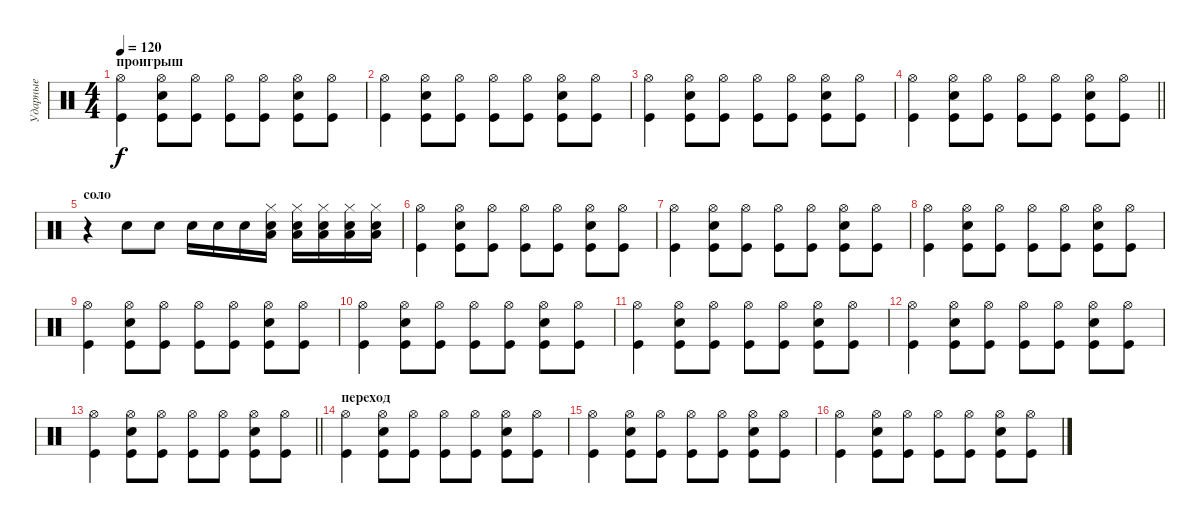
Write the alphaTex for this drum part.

\track ("Ударные" "Ударные") {instrument percussion}
\staff {score}
\articulation defaults
\ts (4 4)
\section ("" "проигрыш")
\tempo 120
\clef neutral
\ks c
("Hi-Hat (open)" "Kick (hit)").4{dy f} ("Hi-Hat (open)" "Snare (hit) 2" "Kick (hit)").8 ("Hi-Hat (open)" "Kick (hit)").8 ("Hi-Hat (open)" "Kick (hit)").8 ("Hi-Hat (open)" "Kick (hit)").8 ("Hi-Hat (open)" "Snare (hit) 2" "Kick (hit)").8 ("Hi-Hat (open)" "Kick (hit)").8 |
("Hi-Hat (open)" "Kick (hit)").4 ("Hi-Hat (open)" "Snare (hit) 2" "Kick (hit)").8 ("Hi-Hat (open)" "Kick (hit)").8 ("Hi-Hat (open)" "Kick (hit)").8 ("Hi-Hat (open)" "Kick (hit)").8 ("Hi-Hat (open)" "Snare (hit) 2" "Kick (hit)").8 ("Hi-Hat (open)" "Kick (hit)").8 |
("Hi-Hat (open)" "Kick (hit)").4 ("Hi-Hat (open)" "Snare (hit) 2" "Kick (hit)").8 ("Hi-Hat (open)" "Kick (hit)").8 ("Hi-Hat (open)" "Kick (hit)").8 ("Hi-Hat (open)" "Kick (hit)").8 ("Hi-Hat (open)" "Snare (hit) 2" "Kick (hit)").8 ("Hi-Hat (open)" "Kick (hit)").8 |
\barLineRight lightlight
("Hi-Hat (open)" "Kick (hit)").4 ("Hi-Hat (open)" "Snare (hit) 2" "Kick (hit)").8 ("Hi-Hat (open)" "Kick (hit)").8 ("Hi-Hat (open)" "Kick (hit)").8 ("Hi-Hat (open)" "Kick (hit)").8 ("Hi-Hat (open)" "Snare (hit) 2" "Kick (hit)").8 ("Hi-Hat (open)" "Kick (hit)").8 |
\section ("" "соло")
r.4 "Snare (hit) 2".8 "Snare (hit) 2".8 "Snare (hit) 2".16 "Snare (hit) 2".16 "Snare (hit) 2".16 ("Hi-Hat (closed)" "Low Floor Tom (hit)" "Snare (hit) 2").16 ("Hi-Hat (closed)" "Low Floor Tom (hit)" "Snare (hit) 2").16 ("Hi-Hat (closed)" "Low Floor Tom (hit)" "Snare (hit) 2").16 ("Hi-Hat (closed)" "Low Floor Tom (hit)" "Snare (hit) 2").16 ("Hi-Hat (closed)" "Low Floor Tom (hit)" "Snare (hit) 2").16 |
("Hi-Hat (open)" "Kick (hit)").4 ("Hi-Hat (open)" "Snare (hit) 2" "Kick (hit)").8 ("Hi-Hat (open)" "Kick (hit)").8 ("Hi-Hat (open)" "Kick (hit)").8 ("Hi-Hat (open)" "Kick (hit)").8 ("Hi-Hat (open)" "Snare (hit) 2" "Kick (hit)").8 ("Hi-Hat (open)" "Kick (hit)").8 |
("Hi-Hat (open)" "Kick (hit)").4 ("Hi-Hat (open)" "Snare (hit) 2" "Kick (hit)").8 ("Hi-Hat (open)" "Kick (hit)").8 ("Hi-Hat (open)" "Kick (hit)").8 ("Hi-Hat (open)" "Kick (hit)").8 ("Hi-Hat (open)" "Snare (hit) 2" "Kick (hit)").8 ("Hi-Hat (open)" "Kick (hit)").8 |
("Hi-Hat (open)" "Kick (hit)").4 ("Hi-Hat (open)" "Snare (hit) 2" "Kick (hit)").8 ("Hi-Hat (open)" "Kick (hit)").8 ("Hi-Hat (open)" "Kick (hit)").8 ("Hi-Hat (open)" "Kick (hit)").8 ("Hi-Hat (open)" "Snare (hit) 2" "Kick (hit)").8 ("Hi-Hat (open)" "Kick (hit)").8 |
("Hi-Hat (open)" "Kick (hit)").4 ("Hi-Hat (open)" "Snare (hit) 2" "Kick (hit)").8 ("Hi-Hat (open)" "Kick (hit)").8 ("Hi-Hat (open)" "Kick (hit)").8 ("Hi-Hat (open)" "Kick (hit)").8 ("Hi-Hat (open)" "Snare (hit) 2" "Kick (hit)").8 ("Hi-Hat (open)" "Kick (hit)").8 |
("Hi-Hat (open)" "Kick (hit)").4 ("Hi-Hat (open)" "Snare (hit) 2" "Kick (hit)").8 ("Hi-Hat (open)" "Kick (hit)").8 ("Hi-Hat (open)" "Kick (hit)").8 ("Hi-Hat (open)" "Kick (hit)").8 ("Hi-Hat (open)" "Snare (hit) 2" "Kick (hit)").8 ("Hi-Hat (open)" "Kick (hit)").8 |
("Hi-Hat (open)" "Kick (hit)").4 ("Hi-Hat (open)" "Snare (hit) 2" "Kick (hit)").8 ("Hi-Hat (open)" "Kick (hit)").8 ("Hi-Hat (open)" "Kick (hit)").8 ("Hi-Hat (open)" "Kick (hit)").8 ("Hi-Hat (open)" "Snare (hit) 2" "Kick (hit)").8 ("Hi-Hat (open)" "Kick (hit)").8 |
("Hi-Hat (open)" "Kick (hit)").4 ("Hi-Hat (open)" "Snare (hit) 2" "Kick (hit)").8 ("Hi-Hat (open)" "Kick (hit)").8 ("Hi-Hat (open)" "Kick (hit)").8 ("Hi-Hat (open)" "Kick (hit)").8 ("Hi-Hat (open)" "Snare (hit) 2" "Kick (hit)").8 ("Hi-Hat (open)" "Kick (hit)").8 |
\barLineRight lightlight
("Hi-Hat (open)" "Kick (hit)").4 ("Hi-Hat (open)" "Snare (hit) 2" "Kick (hit)").8 ("Hi-Hat (open)" "Kick (hit)").8 ("Hi-Hat (open)" "Kick (hit)").8 ("Hi-Hat (open)" "Kick (hit)").8 ("Hi-Hat (open)" "Snare (hit) 2" "Kick (hit)").8 ("Hi-Hat (open)" "Kick (hit)").8 |
\section ("" "переход")
("Hi-Hat (open)" "Kick (hit)").4 ("Hi-Hat (open)" "Snare (hit) 2" "Kick (hit)").8 ("Hi-Hat (open)" "Kick (hit)").8 ("Hi-Hat (open)" "Kick (hit)").8 ("Hi-Hat (open)" "Kick (hit)").8 ("Hi-Hat (open)" "Snare (hit) 2" "Kick (hit)").8 ("Hi-Hat (open)" "Kick (hit)").8 |
("Hi-Hat (open)" "Kick (hit)").4 ("Hi-Hat (open)" "Snare (hit) 2" "Kick (hit)").8 ("Hi-Hat (open)" "Kick (hit)").8 ("Hi-Hat (open)" "Kick (hit)").8 ("Hi-Hat (open)" "Kick (hit)").8 ("Hi-Hat (open)" "Snare (hit) 2" "Kick (hit)").8 ("Hi-Hat (open)" "Kick (hit)").8 |
("Hi-Hat (open)" "Kick (hit)").4 ("Hi-Hat (open)" "Snare (hit) 2" "Kick (hit)").8 ("Hi-Hat (open)" "Kick (hit)").8 ("Hi-Hat (open)" "Kick (hit)").8 ("Hi-Hat (open)" "Kick (hit)").8 ("Hi-Hat (open)" "Snare (hit) 2" "Kick (hit)").8 ("Hi-Hat (open)" "Kick (hit)").8
